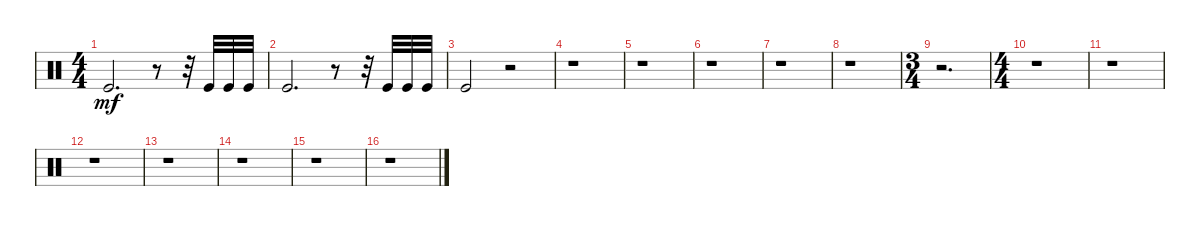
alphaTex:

\defaultSystemsLayout 4
\bracketExtendMode groupsimilarinstruments
\singleTrackTrackNamePolicy hidden
\multiTrackTrackNamePolicy hidden
\firstSystemTrackNameOrientation horizontal
\otherSystemsTrackNameOrientation horizontal
\track ("Castanets" "Cast.") {instrument percussion}
\staff {score}
\articulation defaults
\ts (4 4)
\tempo (92 hide)
\clef neutral
\scale
1.02648
\ks c "Kick (hit)".2{d dy mf}
r.8 r.32 "Kick (hit)".32 "Kick (hit)".32 "Kick (hit)".32 |
\scale
0.973518 "Kick (hit)".2{d} r.8 r.32 "Kick (hit)".32 "Kick (hit)".32 "Kick (hit)".32 |
\scale
1.02648 "Kick (hit)".2 r.2 |
\scale
0.973518 r.1 |
\scale
1.02648 r.1 |
\scale
0.973518 r.1 |
\scale
1.02648 r.1 |
\tempo (92 hide)
\scale
0.973518 r.1 |
\ts (3 4)
\scale
1.02648 r.2{d} |
\ts (4 4)
\tempo (100 hide)
\scale
0.973518 r.1 |
\scale
1.02648 r.1 |
\scale
0.973518 r.1 |
\scale
1.02648 r.1 |
\scale
0.973518 r.1 |
\scale
1.02648 r.1 |
\scale
0.973518 r.1
